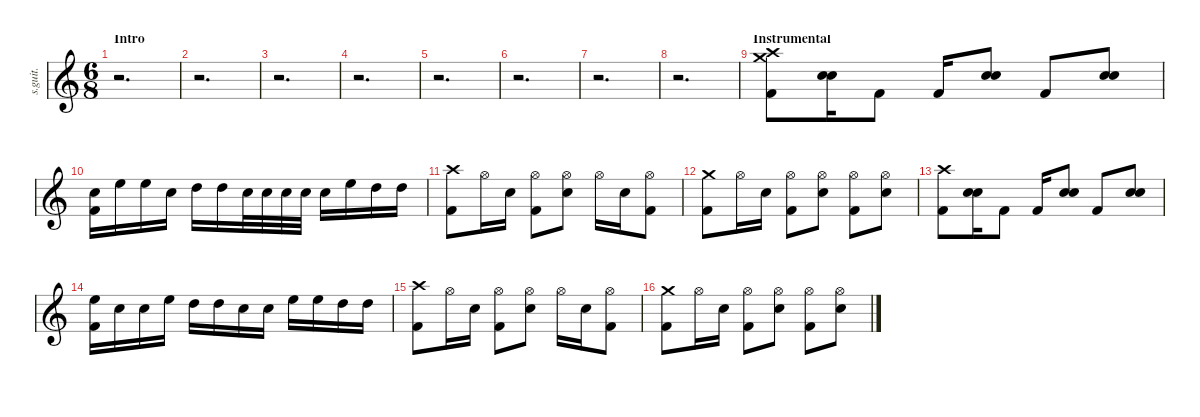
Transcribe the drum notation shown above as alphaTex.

\defaultSystemsLayout 4
\hideDynamics
\bracketExtendMode nobrackets
\track ("John Dolmayan" "s.guit.") {instrument percussion}
\staff {score}
\articulation defaults
\ts (6 8)
\beaming (8 2 2 2 2)
\section ("" "Intro")
\tempo (116 hide)
\clef g2
\ks c
r.2{d dy f} |
r.2{d} |
r.2{d} |
r.2{d} |
r.2{d} |
r.2{d} |
r.2{d} |
r.2{d} |
\section ("" "Instrumental")
\tempo (121 hide)
("Crash medium (hit)" "Crash high (hit)" "Kick (hit) 2").8{lyrics (0 "") lyrics (1 "") lyrics (2 "") lyrics (3 "") lyrics (4 "")} ("Snare (hit) 2" "Snare (hit) 2").16{bu 30 lyrics (0 "") lyrics (1 "") lyrics (2 "") lyrics (3 "") lyrics (4 "")} "Kick (hit) 2".8{lyrics (0 "") lyrics (1 "") lyrics (2 "") lyrics (3 "") lyrics (4 "")} "Kick (hit) 2".16{lyrics (0 "") lyrics (1 "") lyrics (2 "") lyrics (3 "") lyrics (4 "")} ("Snare (hit) 2" "Snare (hit) 2").8{bu 30 lyrics (0 "") lyrics (1 "") lyrics (2 "") lyrics (3 "") lyrics (4 "")} "Kick (hit) 2".8{lyrics (0 "") lyrics (1 "") lyrics (2 "") lyrics (3 "") lyrics (4 "")} ("Snare (hit) 2" "Snare (hit) 2").8{bu 30 lyrics (0 "") lyrics (1 "") lyrics (2 "") lyrics (3 "") lyrics (4 "")} |
("Snare (hit) 2" "Kick (hit) 2").16{lyrics (0 "") lyrics (1 "") lyrics (2 "") lyrics (3 "") lyrics (4 "")} "High Floor Tom (hit)".16{lyrics (0 "") lyrics (1 "") lyrics (2 "") lyrics (3 "") lyrics (4 "")} "High Floor Tom (hit)".16{lyrics (0 "") lyrics (1 "") lyrics (2 "") lyrics (3 "") lyrics (4 "")} "Snare (hit) 2".16{lyrics (0 "") lyrics (1 "") lyrics (2 "") lyrics (3 "") lyrics (4 "")} "High Tom (hit)".16{lyrics (0 "") lyrics (1 "") lyrics (2 "") lyrics (3 "") lyrics (4 "")} "High Tom (hit)".16{lyrics (0 "") lyrics (1 "") lyrics (2 "") lyrics (3 "") lyrics (4 "")} "Snare (hit) 2".32{lyrics (0 "") lyrics (1 "") lyrics (2 "") lyrics (3 "") lyrics (4 "")} "Snare (hit) 2".32{lyrics (0 "") lyrics (1 "") lyrics (2 "") lyrics (3 "") lyrics (4 "")} "Snare (hit) 2".32{lyrics (0 "") lyrics (1 "") lyrics (2 "") lyrics (3 "") lyrics (4 "")} "Snare (hit) 2".32{lyrics (0 "") lyrics (1 "") lyrics (2 "") lyrics (3 "") lyrics (4 "")} "Snare (hit) 2".16{lyrics (0 "") lyrics (1 "") lyrics (2 "") lyrics (3 "") lyrics (4 "")} "High Floor Tom (hit)".16{lyrics (0 "") lyrics (1 "") lyrics (2 "") lyrics (3 "") lyrics (4 "")} "High Tom (hit)".16{lyrics (0 "") lyrics (1 "") lyrics (2 "") lyrics (3 "") lyrics (4 "")} "High Tom (hit)".16{lyrics (0 "") lyrics (1 "") lyrics (2 "") lyrics (3 "") lyrics (4 "")} |
("Crash high (hit)" "Kick (hit) 2").8{lyrics (0 "") lyrics (1 "") lyrics (2 "") lyrics (3 "") lyrics (4 "")} "Hi-Hat (open)".16{lyrics (0 "") lyrics (1 "") lyrics (2 "") lyrics (3 "") lyrics (4 "")} "Snare (hit) 2".16{lyrics (0 "") lyrics (1 "") lyrics (2 "") lyrics (3 "") lyrics (4 "")} ("Hi-Hat (open)" "Kick (hit) 2").8{lyrics (0 "") lyrics (1 "") lyrics (2 "") lyrics (3 "") lyrics (4 "")} ("Hi-Hat (open)" "Snare (hit) 2").8{lyrics (0 "") lyrics (1 "") lyrics (2 "") lyrics (3 "") lyrics (4 "")} "Hi-Hat (open)".16{lyrics (0 "") lyrics (1 "") lyrics (2 "") lyrics (3 "") lyrics (4 "")} "Snare (hit) 2".16{lyrics (0 "") lyrics (1 "") lyrics (2 "") lyrics (3 "") lyrics (4 "")} ("Hi-Hat (open)" "Kick (hit) 2").8{lyrics (0 "") lyrics (1 "") lyrics (2 "") lyrics (3 "") lyrics (4 "")} |
("Crash medium (hit)" "Kick (hit) 2").8{lyrics (0 "") lyrics (1 "") lyrics (2 "") lyrics (3 "") lyrics (4 "")} "Hi-Hat (open)".16{lyrics (0 "") lyrics (1 "") lyrics (2 "") lyrics (3 "") lyrics (4 "")} "Snare (hit) 2".16{lyrics (0 "") lyrics (1 "") lyrics (2 "") lyrics (3 "") lyrics (4 "")} ("Hi-Hat (open)" "Kick (hit) 2").8{lyrics (0 "") lyrics (1 "") lyrics (2 "") lyrics (3 "") lyrics (4 "")} ("Hi-Hat (open)" "Snare (hit) 2").8{lyrics (0 "") lyrics (1 "") lyrics (2 "") lyrics (3 "") lyrics (4 "")} ("Hi-Hat (open)" "Kick (hit) 2").8{lyrics (0 "") lyrics (1 "") lyrics (2 "") lyrics (3 "") lyrics (4 "")} ("Hi-Hat (open)" "Snare (hit) 2").8{lyrics (0 "") lyrics (1 "") lyrics (2 "") lyrics (3 "") lyrics (4 "")} |
("Crash high (hit)" "Kick (hit) 2").8{lyrics (0 "") lyrics (1 "") lyrics (2 "") lyrics (3 "") lyrics (4 "")} ("Snare (hit) 2" "Snare (hit) 2").16{bu 30 lyrics (0 "") lyrics (1 "") lyrics (2 "") lyrics (3 "") lyrics (4 "")} "Kick (hit) 2".8{lyrics (0 "") lyrics (1 "") lyrics (2 "") lyrics (3 "") lyrics (4 "")} "Kick (hit) 2".16{lyrics (0 "") lyrics (1 "") lyrics (2 "") lyrics (3 "") lyrics (4 "")} ("Snare (hit) 2" "Snare (hit) 2").8{bu 30 lyrics (0 "") lyrics (1 "") lyrics (2 "") lyrics (3 "") lyrics (4 "")} "Kick (hit) 2".8{lyrics (0 "") lyrics (1 "") lyrics (2 "") lyrics (3 "") lyrics (4 "")} ("Snare (hit) 2" "Snare (hit) 2").8{bu 30 lyrics (0 "") lyrics (1 "") lyrics (2 "") lyrics (3 "") lyrics (4 "")} |
("High Floor Tom (hit)" "Kick (hit) 2").16{lyrics (0 "") lyrics (1 "") lyrics (2 "") lyrics (3 "") lyrics (4 "")} "Snare (hit) 2".16{lyrics (0 "") lyrics (1 "") lyrics (2 "") lyrics (3 "") lyrics (4 "")} "Snare (hit) 2".16{lyrics (0 "") lyrics (1 "") lyrics (2 "") lyrics (3 "") lyrics (4 "")} "High Floor Tom (hit)".16{lyrics (0 "") lyrics (1 "") lyrics (2 "") lyrics (3 "") lyrics (4 "")} "High Tom (hit)".16{lyrics (0 "") lyrics (1 "") lyrics (2 "") lyrics (3 "") lyrics (4 "")} "High Tom (hit)".16{lyrics (0 "") lyrics (1 "") lyrics (2 "") lyrics (3 "") lyrics (4 "")} "Snare (hit) 2".16{lyrics (0 "") lyrics (1 "") lyrics (2 "") lyrics (3 "") lyrics (4 "")} "Snare (hit) 2".16{lyrics (0 "") lyrics (1 "") lyrics (2 "") lyrics (3 "") lyrics (4 "")} "High Floor Tom (hit)".16{lyrics (0 "") lyrics (1 "") lyrics (2 "") lyrics (3 "") lyrics (4 "")} "High Floor Tom (hit)".16{lyrics (0 "") lyrics (1 "") lyrics (2 "") lyrics (3 "") lyrics (4 "")} "High Tom (hit)".16{lyrics (0 "") lyrics (1 "") lyrics (2 "") lyrics (3 "") lyrics (4 "")} "High Tom (hit)".16{lyrics (0 "") lyrics (1 "") lyrics (2 "") lyrics (3 "") lyrics (4 "")} |
("Crash high (hit)" "Kick (hit) 2").8{lyrics (0 "") lyrics (1 "") lyrics (2 "") lyrics (3 "") lyrics (4 "")} "Hi-Hat (open)".16{lyrics (0 "") lyrics (1 "") lyrics (2 "") lyrics (3 "") lyrics (4 "")} "Snare (hit) 2".16{lyrics (0 "") lyrics (1 "") lyrics (2 "") lyrics (3 "") lyrics (4 "")} ("Hi-Hat (open)" "Kick (hit) 2").8{lyrics (0 "") lyrics (1 "") lyrics (2 "") lyrics (3 "") lyrics (4 "")} ("Hi-Hat (open)" "Snare (hit) 2").8{lyrics (0 "") lyrics (1 "") lyrics (2 "") lyrics (3 "") lyrics (4 "")} "Hi-Hat (open)".16{lyrics (0 "") lyrics (1 "") lyrics (2 "") lyrics (3 "") lyrics (4 "")} "Snare (hit) 2".16{lyrics (0 "") lyrics (1 "") lyrics (2 "") lyrics (3 "") lyrics (4 "")} ("Hi-Hat (open)" "Kick (hit) 2").8{lyrics (0 "") lyrics (1 "") lyrics (2 "") lyrics (3 "") lyrics (4 "")} |
("Crash medium (hit)" "Kick (hit) 2").8{lyrics (0 "") lyrics (1 "") lyrics (2 "") lyrics (3 "") lyrics (4 "")} "Hi-Hat (open)".16{lyrics (0 "") lyrics (1 "") lyrics (2 "") lyrics (3 "") lyrics (4 "")} "Snare (hit) 2".16{lyrics (0 "") lyrics (1 "") lyrics (2 "") lyrics (3 "") lyrics (4 "")} ("Hi-Hat (open)" "Kick (hit) 2").8{lyrics (0 "") lyrics (1 "") lyrics (2 "") lyrics (3 "") lyrics (4 "")} ("Hi-Hat (open)" "Snare (hit) 2").8{lyrics (0 "") lyrics (1 "") lyrics (2 "") lyrics (3 "") lyrics (4 "")} ("Hi-Hat (open)" "Kick (hit) 2").8{lyrics (0 "") lyrics (1 "") lyrics (2 "") lyrics (3 "") lyrics (4 "")} ("Hi-Hat (open)" "Snare (hit) 2").8{lyrics (0 "") lyrics (1 "") lyrics (2 "") lyrics (3 "") lyrics (4 "")}
